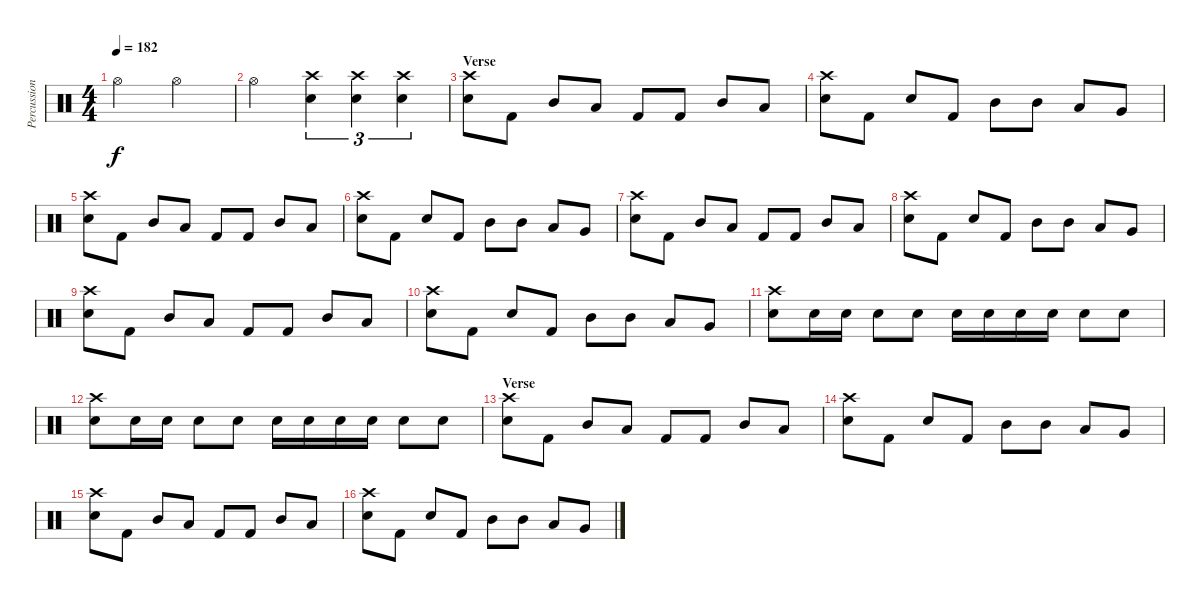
\track ("Percussion" "Percussion") {instrument percussion}
\staff {score}
\articulation defaults
\ts (4 4)
\tempo 182
\clef neutral
\ks c "Hi-Hat (open)".2{dy f} "Hi-Hat (open)".2
|
"Hi-Hat (open)".2 ("Crash high (hit)" "Snare (hit) 2").4{tu (3 2)} ("Crash high (hit)" "Snare (hit) 2").4{tu (3 2)} ("Crash high (hit)" "Snare (hit) 2").4{tu (3 2)} |
\section ("" "Verse")
("Crash high (hit)" "Snare (hit) 2").8 "Kick (hit) 2".8 "Mid Tom (hit)".8 "Low Tom (hit)".8 "Kick (hit) 2".8 "Kick (hit) 2".8 "Mid Tom (hit)".8 "Low Tom (hit)".8 |
("Crash high (hit)" "Snare (hit) 2").8 "Kick (hit) 2".8 "Snare (hit) 2".8 "Kick (hit) 2".8 "Mid Tom (hit)".8 "Mid Tom (hit)".8 "Low Tom (hit)".8 "Very Low Tom (hit)".8 |
("Crash high (hit)" "Snare (hit) 2").8 "Kick (hit) 2".8 "Mid Tom (hit)".8 "Low Tom (hit)".8 "Kick (hit) 2".8 "Kick (hit) 2".8 "Mid Tom (hit)".8 "Low Tom (hit)".8 |
("Crash high (hit)" "Snare (hit) 2").8 "Kick (hit) 2".8 "Snare (hit) 2".8 "Kick (hit) 2".8 "Mid Tom (hit)".8 "Mid Tom (hit)".8 "Low Tom (hit)".8 "Very Low Tom (hit)".8 |
("Crash high (hit)" "Snare (hit) 2").8 "Kick (hit) 2".8 "Mid Tom (hit)".8 "Low Tom (hit)".8 "Kick (hit) 2".8 "Kick (hit) 2".8 "Mid Tom (hit)".8 "Low Tom (hit)".8 |
("Crash high (hit)" "Snare (hit) 2").8 "Kick (hit) 2".8 "Snare (hit) 2".8 "Kick (hit) 2".8 "Mid Tom (hit)".8 "Mid Tom (hit)".8 "Low Tom (hit)".8 "Very Low Tom (hit)".8 |
("Crash high (hit)" "Snare (hit) 2").8 "Kick (hit) 2".8 "Mid Tom (hit)".8 "Low Tom (hit)".8 "Kick (hit) 2".8 "Kick (hit) 2".8 "Mid Tom (hit)".8 "Low Tom (hit)".8 |
("Crash high (hit)" "Snare (hit) 2").8 "Kick (hit) 2".8 "Snare (hit) 2".8 "Kick (hit) 2".8 "Mid Tom (hit)".8 "Mid Tom (hit)".8 "Low Tom (hit)".8 "Very Low Tom (hit)".8 |
("Crash high (hit)" "Snare (hit) 2").8 "Snare (hit) 2".16 "Snare (hit) 2".16 "Snare (hit) 2".8 "Snare (hit) 2".8 "Snare (hit) 2".16 "Snare (hit) 2".16 "Snare (hit) 2".16 "Snare (hit) 2".16 "Snare (hit) 2".8 "Snare (hit) 2".8 |
("Crash high (hit)" "Snare (hit) 2").8 "Snare (hit) 2".16 "Snare (hit) 2".16 "Snare (hit) 2".8 "Snare (hit) 2".8 "Snare (hit) 2".16 "Snare (hit) 2".16 "Snare (hit) 2".16 "Snare (hit) 2".16 "Snare (hit) 2".8 "Snare (hit) 2".8 |
\section ("" "Verse")
("Crash high (hit)" "Snare (hit) 2").8 "Kick (hit) 2".8 "Mid Tom (hit)".8 "Low Tom (hit)".8 "Kick (hit) 2".8 "Kick (hit) 2".8 "Mid Tom (hit)".8 "Low Tom (hit)".8 |
("Crash high (hit)" "Snare (hit) 2").8 "Kick (hit) 2".8 "Snare (hit) 2".8 "Kick (hit) 2".8 "Mid Tom (hit)".8 "Mid Tom (hit)".8 "Low Tom (hit)".8 "Very Low Tom (hit)".8 |
("Crash high (hit)" "Snare (hit) 2").8 "Kick (hit) 2".8 "Mid Tom (hit)".8 "Low Tom (hit)".8 "Kick (hit) 2".8 "Kick (hit) 2".8 "Mid Tom (hit)".8 "Low Tom (hit)".8 |
("Crash high (hit)" "Snare (hit) 2").8 "Kick (hit) 2".8 "Snare (hit) 2".8 "Kick (hit) 2".8 "Mid Tom (hit)".8 "Mid Tom (hit)".8 "Low Tom (hit)".8 "Very Low Tom (hit)".8
